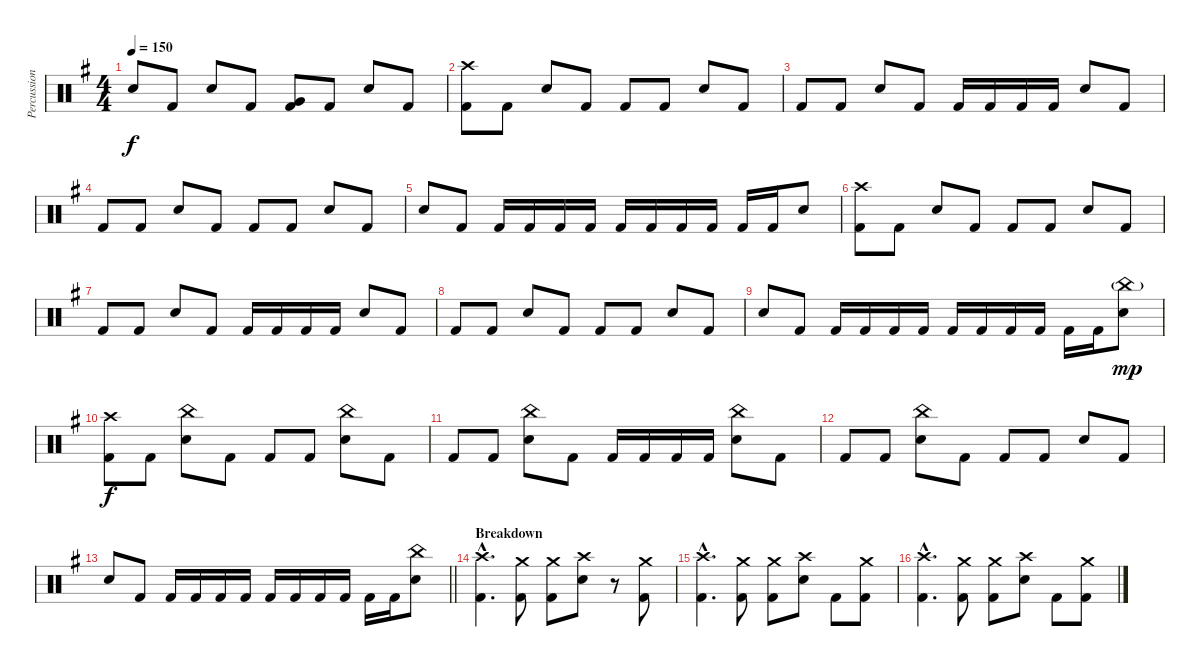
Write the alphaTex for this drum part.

\track ("Percussion" "Percussion") {instrument percussion}
\staff {score}
\articulation defaults
\ts (4 4)
\tempo 150
\clef neutral
\ks g "Snare (hit) 2".8{dy f} "Kick (hit) 2".8 "Snare (hit) 2".8 "Kick (hit) 2".8
("Very Low Tom (hit)" "Kick (hit) 2").8 "Kick (hit) 2".8 "Snare (hit) 2".8 "Kick (hit) 2".8 |
("Crash high (hit)" "Kick (hit) 2").8 "Kick (hit) 2".8 "Snare (hit) 2".8 "Kick (hit) 2".8 "Kick (hit) 2".8 "Kick (hit) 2".8 "Snare (hit) 2".8 "Kick (hit) 2".8 |
"Kick (hit) 2".8 "Kick (hit) 2".8 "Snare (hit) 2".8 "Kick (hit) 2".8 "Kick (hit) 2".16 "Kick (hit) 2".16 "Kick (hit) 2".16 "Kick (hit) 2".16 "Snare (hit) 2".8 "Kick (hit) 2".8 |
"Kick (hit) 2".8 "Kick (hit) 2".8 "Snare (hit) 2".8 "Kick (hit) 2".8 "Kick (hit) 2".8 "Kick (hit) 2".8 "Snare (hit) 2".8 "Kick (hit) 2".8 |
"Snare (hit) 2".8 "Kick (hit) 2".8 "Kick (hit) 2".16 "Kick (hit) 2".16 "Kick (hit) 2".16 "Kick (hit) 2".16 "Kick (hit) 2".16 "Kick (hit) 2".16 "Kick (hit) 2".16 "Kick (hit) 2".16 "Kick (hit) 2".16 "Kick (hit) 2".16 "Snare (hit) 2".8 |
("Crash high (hit)" "Kick (hit) 2").8 "Kick (hit) 2".8 "Snare (hit) 2".8 "Kick (hit) 2".8 "Kick (hit) 2".8 "Kick (hit) 2".8 "Snare (hit) 2".8 "Kick (hit) 2".8 |
"Kick (hit) 2".8 "Kick (hit) 2".8 "Snare (hit) 2".8 "Kick (hit) 2".8 "Kick (hit) 2".16 "Kick (hit) 2".16 "Kick (hit) 2".16 "Kick (hit) 2".16 "Snare (hit) 2".8 "Kick (hit) 2".8 |
"Kick (hit) 2".8 "Kick (hit) 2".8 "Snare (hit) 2".8 "Kick (hit) 2".8 "Kick (hit) 2".8 "Kick (hit) 2".8 "Snare (hit) 2".8 "Kick (hit) 2".8 |
"Snare (hit) 2".8 "Kick (hit) 2".8 "Kick (hit) 2".16 "Kick (hit) 2".16 "Kick (hit) 2".16 "Kick (hit) 2".16 "Kick (hit) 2".16 "Kick (hit) 2".16 "Kick (hit) 2".16 "Kick (hit) 2".16 "Kick (hit) 2".16 "Kick (hit) 2".16 ("China (hit)"{g} "Snare (hit) 2").8{dy mp} |
("Crash high (hit)" "Kick (hit) 2").8{dy f} "Kick (hit) 2".8 ("China (hit)" "Snare (hit) 2").8 "Kick (hit) 2".8 "Kick (hit) 2".8 "Kick (hit) 2".8 ("China (hit)" "Snare (hit) 2").8 "Kick (hit) 2".8 |
"Kick (hit) 2".8 "Kick (hit) 2".8 ("China (hit)" "Snare (hit) 2").8 "Kick (hit) 2".8 "Kick (hit) 2".16 "Kick (hit) 2".16 "Kick (hit) 2".16 "Kick (hit) 2".16 ("China (hit)" "Snare (hit) 2").8 "Kick (hit) 2".8 |
"Kick (hit) 2".8 "Kick (hit) 2".8 ("China (hit)" "Snare (hit) 2").8 "Kick (hit) 2".8 "Kick (hit) 2".8 "Kick (hit) 2".8 "Snare (hit) 2".8 "Kick (hit) 2".8 |
\barLineRight lightlight "Snare (hit) 2".8 "Kick (hit) 2".8 "Kick (hit) 2".16 "Kick (hit) 2".16 "Kick (hit) 2".16 "Kick (hit) 2".16 "Kick (hit) 2".16 "Kick (hit) 2".16 "Kick (hit) 2".16 "Kick (hit) 2".16 "Kick (hit) 2".16 "Kick (hit) 2".16
("China (hit)" "Snare (hit) 2").8 |
\section ("" "Breakdown")
("Crash high (hit)"{hac} "Kick (hit) 2"{hac}).4{d} ("Crash medium (hit)" "Kick (hit) 2").8 ("Crash medium (hit)" "Kick (hit) 2").8 ("Crash high (hit)" "Snare (hit) 2").8 r.8 ("Crash medium (hit)" "Kick (hit) 2").8 |
("Crash high (hit)"{hac} "Kick (hit) 2"{hac}).4{d} ("Crash medium (hit)" "Kick (hit) 2").8 ("Crash medium (hit)" "Kick (hit) 2").8 ("Crash high (hit)" "Snare (hit) 2").8 "Kick (hit) 2".8 ("Crash medium (hit)" "Kick (hit) 2").8 |
("Crash high (hit)"{hac} "Kick (hit) 2"{hac}).4{d} ("Crash medium (hit)" "Kick (hit) 2").8 ("Crash medium (hit)" "Kick (hit) 2").8 ("Crash high (hit)" "Snare (hit) 2").8 "Kick (hit) 2".8 ("Crash medium (hit)" "Kick (hit) 2").8
